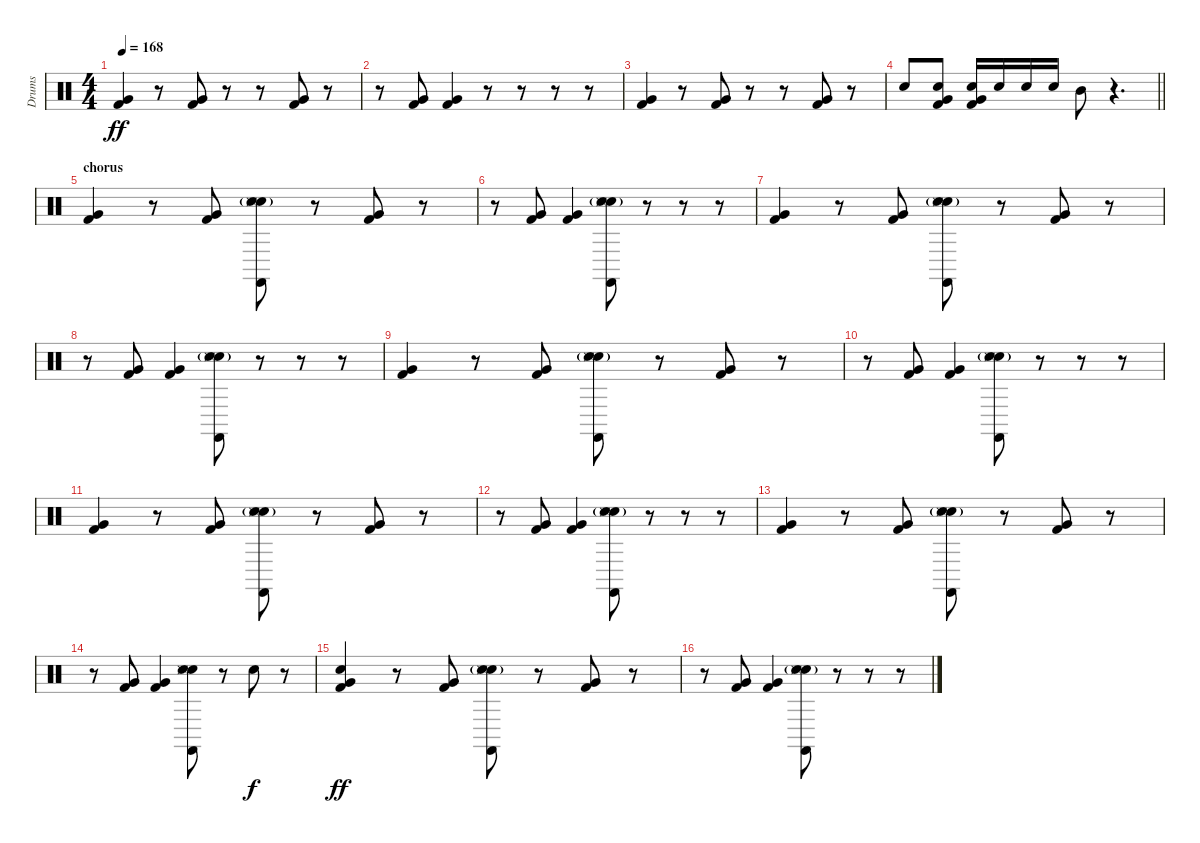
\track ("Drums" "Drums") {instrument percussion}
\staff {score}
\articulation defaults
\ts (4 4)
\tempo 168
\clef neutral
\ks c
("Very Low Tom (hit)" "Kick (hit) 2").4{dy ff} r.8 ("Very Low Tom (hit)" "Kick (hit) 2").8 r.8 r.8 ("Very Low Tom (hit)" "Kick (hit) 2").8 r.8 |
r.8 ("Very Low Tom (hit)" "Kick (hit) 2").8 ("Very Low Tom (hit)" "Kick (hit) 2").4 r.8 r.8 r.8 r.8 |
("Very Low Tom (hit)" "Kick (hit) 2").4 r.8 ("Very Low Tom (hit)" "Kick (hit) 2").8 r.8 r.8 ("Very Low Tom (hit)" "Kick (hit) 2").8 r.8 |
\barLineRight lightlight "Snare (hit) 2".8
("Snare (hit) 2" "Very Low Tom (hit)" "Kick (hit) 2").8 ("Snare (hit) 2" "Very Low Tom (hit)" "Kick (hit) 2").16 "Snare (hit) 2".16 "Snare (hit) 2".16 "Snare (hit) 2".16 "Mid Tom (hit)".8 r.4{d} |
\section ("" "chorus")
("Very Low Tom (hit)" "Kick (hit) 2").4 r.8 ("Very Low Tom (hit)" "Kick (hit) 2").8 ("Snare (hit) 2" "Hand Clap (hit)"{g} "Castanets (hit)" "Snare (side stick) 3").8 r.8 ("Very Low Tom (hit)" "Kick (hit) 2").8 r.8 |
r.8 ("Very Low Tom (hit)" "Kick (hit) 2").8 ("Very Low Tom (hit)" "Kick (hit) 2").4 ("Snare (hit) 2" "Hand Clap (hit)"{g} "Castanets (hit)" "Snare (side stick) 3").8 r.8 r.8 r.8 |
("Very Low Tom (hit)" "Kick (hit) 2").4 r.8 ("Very Low Tom (hit)" "Kick (hit) 2").8 ("Snare (hit) 2" "Hand Clap (hit)"{g} "Castanets (hit)" "Snare (side stick) 3").8 r.8 ("Very Low Tom (hit)" "Kick (hit) 2").8 r.8 |
r.8 ("Very Low Tom (hit)" "Kick (hit) 2").8 ("Very Low Tom (hit)" "Kick (hit) 2").4 ("Snare (hit) 2" "Hand Clap (hit)"{g} "Castanets (hit)" "Snare (side stick) 3").8 r.8 r.8 r.8 |
("Very Low Tom (hit)" "Kick (hit) 2").4 r.8 ("Very Low Tom (hit)" "Kick (hit) 2").8 ("Snare (hit) 2" "Hand Clap (hit)"{g} "Castanets (hit)" "Snare (side stick) 3").8 r.8 ("Very Low Tom (hit)" "Kick (hit) 2").8 r.8 |
r.8 ("Very Low Tom (hit)" "Kick (hit) 2").8 ("Very Low Tom (hit)" "Kick (hit) 2").4 ("Snare (hit) 2" "Hand Clap (hit)"{g} "Castanets (hit)" "Snare (side stick) 3").8 r.8 r.8 r.8 |
("Very Low Tom (hit)" "Kick (hit) 2").4 r.8 ("Very Low Tom (hit)" "Kick (hit) 2").8 ("Snare (hit) 2" "Hand Clap (hit)"{g} "Castanets (hit)" "Snare (side stick) 3").8 r.8 ("Very Low Tom (hit)" "Kick (hit) 2").8 r.8 |
r.8 ("Very Low Tom (hit)" "Kick (hit) 2").8 ("Very Low Tom (hit)" "Kick (hit) 2").4 ("Snare (hit) 2" "Hand Clap (hit)"{g} "Castanets (hit)" "Snare (side stick) 3").8 r.8 r.8 r.8 |
("Very Low Tom (hit)" "Kick (hit) 2").4 r.8 ("Very Low Tom (hit)" "Kick (hit) 2").8 ("Snare (hit) 2" "Hand Clap (hit)"{g} "Castanets (hit)" "Snare (side stick) 3").8 r.8 ("Very Low Tom (hit)" "Kick (hit) 2").8 r.8 |
r.8 ("Very Low Tom (hit)" "Kick (hit) 2").8 ("Very Low Tom (hit)" "Kick (hit) 2").4 ("Hand Clap (hit)" "Snare (hit) 2" "Castanets (hit)" "Snare (side stick) 3").8 r.8 "Hand Clap (hit)".8{dy f} r.8 |
("Hand Clap (hit)" "Very Low Tom (hit)" "Kick (hit) 2").4{dy ff} r.8 ("Very Low Tom (hit)" "Kick (hit) 2").8 ("Snare (hit) 2" "Hand Clap (hit)"{g} "Castanets (hit)" "Snare (side stick) 3").8 r.8 ("Very Low Tom (hit)" "Kick (hit) 2").8 r.8 |
r.8 ("Very Low Tom (hit)" "Kick (hit) 2").8 ("Very Low Tom (hit)" "Kick (hit) 2").4 ("Snare (hit) 2" "Hand Clap (hit)"{g} "Castanets (hit)" "Snare (side stick) 3").8 r.8 r.8 r.8
